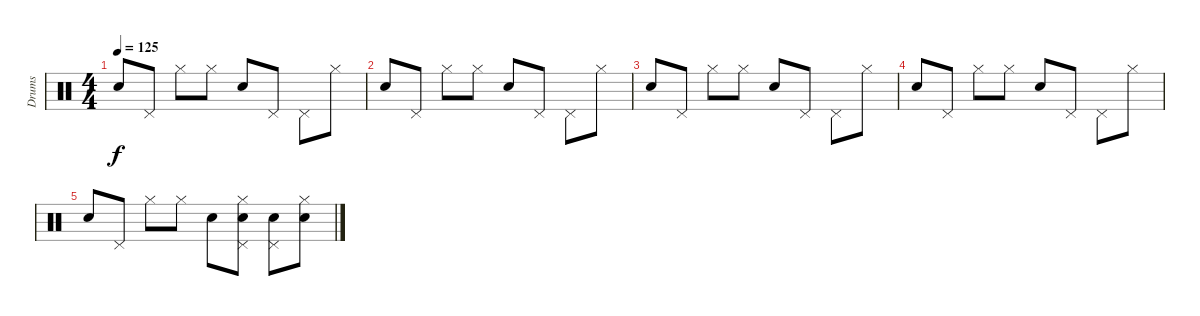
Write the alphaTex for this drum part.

\track ("Drums" "Drums") {instrument percussion}
\staff {score}
\articulation defaults
\ts (4 4)
\tempo 125
\clef neutral
\ks c "Electric Snare (hit)".8{dy f} "Pedal Hi-Hat (hit)".8 "Hi-Hat (closed)".8 "Hi-Hat (closed)".8 "Electric Snare (hit)".8 "Pedal Hi-Hat (hit)".8 "Pedal Hi-Hat (hit)".8 "Hi-Hat (closed)".8
|
"Electric Snare (hit)".8 "Pedal Hi-Hat (hit)".8 "Hi-Hat (closed)".8 "Hi-Hat (closed)".8 "Electric Snare (hit)".8 "Pedal Hi-Hat (hit)".8 "Pedal Hi-Hat (hit)".8 "Hi-Hat (closed)".8 |
"Electric Snare (hit)".8 "Pedal Hi-Hat (hit)".8 "Hi-Hat (closed)".8 "Hi-Hat (closed)".8 "Electric Snare (hit)".8 "Pedal Hi-Hat (hit)".8 "Pedal Hi-Hat (hit)".8 "Hi-Hat (closed)".8 |
"Electric Snare (hit)".8 "Pedal Hi-Hat (hit)".8 "Hi-Hat (closed)".8 "Hi-Hat (closed)".8 "Electric Snare (hit)".8 "Pedal Hi-Hat (hit)".8 "Pedal Hi-Hat (hit)".8 "Hi-Hat (closed)".8 |
"Electric Snare (hit)".8 "Pedal Hi-Hat (hit)".8 "Hi-Hat (closed)".8 "Hi-Hat (closed)".8 "Electric Snare (hit)".8 ("Pedal Hi-Hat (hit)" "Electric Snare (hit)" "Hi-Hat (closed)").8 ("Pedal Hi-Hat (hit)" "Electric Snare (hit)").8 ("Electric Snare (hit)" "Hi-Hat (closed)").8
